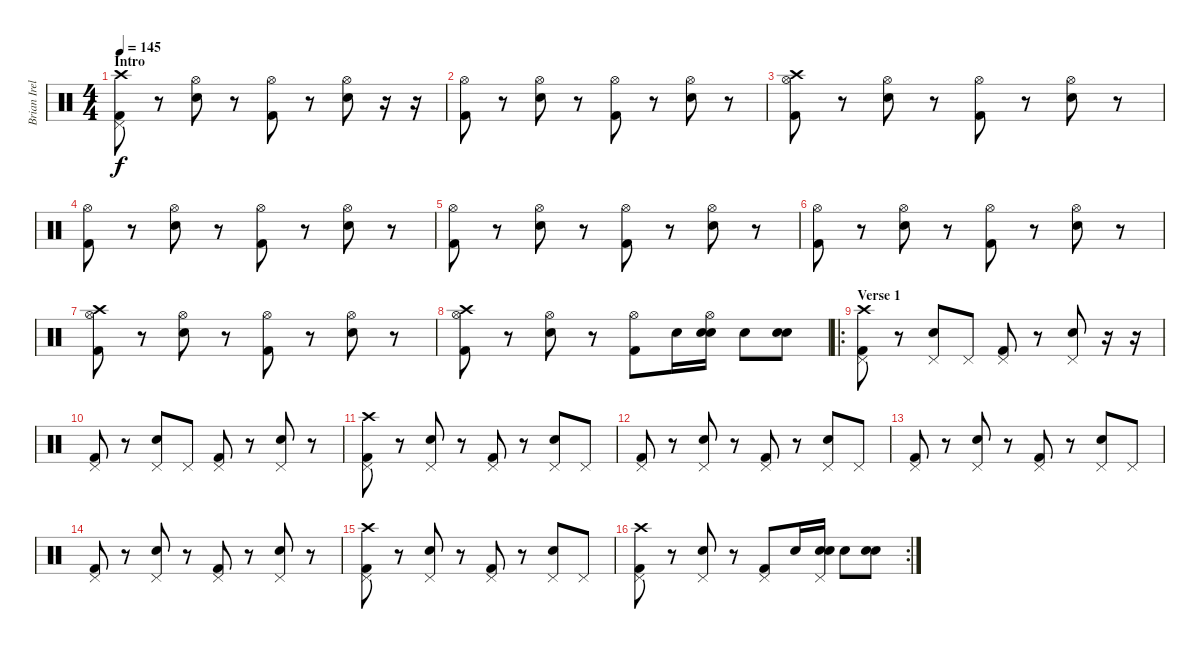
\track ("Brian Ireland" "Brian Irel") {instrument percussion}
\staff {score}
\articulation defaults
\ts (4 4)
\section ("" "Intro")
\tempo 145
\clef neutral
\ks c
("Crash high (hit)" "Pedal Hi-Hat (hit)" "Kick (hit) 2").8{dy f} r.8 ("Hi-Hat (open)" "Electric Snare (hit)").8 r.8 ("Hi-Hat (open)" "Kick (hit) 2").8 r.8 ("Hi-Hat (open)" "Electric Snare (hit)").8 r.16 r.16 |
("Hi-Hat (open)" "Kick (hit) 2").8 r.8 ("Hi-Hat (open)" "Electric Snare (hit)").8 r.8 ("Hi-Hat (open)" "Kick (hit) 2").8 r.8 ("Hi-Hat (open)" "Electric Snare (hit)").8 r.8 |
("Crash high (hit)" "Hi-Hat (open)" "Kick (hit) 2").8 r.8 ("Hi-Hat (open)" "Electric Snare (hit)").8 r.8 ("Hi-Hat (open)" "Kick (hit) 2").8 r.8 ("Hi-Hat (open)" "Electric Snare (hit)").8 r.8 |
("Hi-Hat (open)" "Kick (hit) 2").8 r.8 ("Hi-Hat (open)" "Electric Snare (hit)").8 r.8 ("Hi-Hat (open)" "Kick (hit) 2").8 r.8 ("Hi-Hat (open)" "Electric Snare (hit)").8 r.8 |
("Hi-Hat (open)" "Kick (hit) 2").8 r.8 ("Hi-Hat (open)" "Electric Snare (hit)").8 r.8 ("Hi-Hat (open)" "Kick (hit) 2").8 r.8 ("Hi-Hat (open)" "Electric Snare (hit)").8 r.8 |
("Hi-Hat (open)" "Kick (hit) 2").8 r.8 ("Hi-Hat (open)" "Electric Snare (hit)").8 r.8 ("Hi-Hat (open)" "Kick (hit) 2").8 r.8 ("Hi-Hat (open)" "Electric Snare (hit)").8 r.8 |
("Crash high (hit)" "Hi-Hat (open)" "Kick (hit) 2").8 r.8 ("Hi-Hat (open)" "Electric Snare (hit)").8 r.8 ("Hi-Hat (open)" "Kick (hit) 2").8 r.8 ("Hi-Hat (open)" "Electric Snare (hit)").8 r.8 |
\section ("" "")
("Crash high (hit)" "Hi-Hat (open)" "Kick (hit) 2").8 r.8 ("Hi-Hat (open)" "Electric Snare (hit)").8 r.8 ("Hi-Hat (open)" "Kick (hit) 2").8 "Electric Snare (hit)".16 ("Electric Snare (hit)" "Hi-Hat (open)" "Electric Snare (hit)").16 "Electric Snare (hit)".8 ("Electric Snare (hit)" "Electric Snare (hit)").8 |
\ro
\section ("" "Verse 1")
("Crash high (hit)" "Pedal Hi-Hat (hit)" "Kick (hit) 2").8 r.8 ("Pedal Hi-Hat (hit)" "Electric Snare (hit)").8 "Pedal Hi-Hat (hit)".8 ("Pedal Hi-Hat (hit)" "Kick (hit) 2").8 r.8 ("Pedal Hi-Hat (hit)" "Electric Snare (hit)").8 r.16 r.16 |
("Pedal Hi-Hat (hit)" "Kick (hit) 2").8 r.8 ("Pedal Hi-Hat (hit)" "Electric Snare (hit)").8 "Pedal Hi-Hat (hit)".8 ("Pedal Hi-Hat (hit)" "Kick (hit) 2").8 r.8 ("Pedal Hi-Hat (hit)" "Electric Snare (hit)").8 r.8 |
("Crash high (hit)" "Pedal Hi-Hat (hit)" "Kick (hit) 2").8 r.8 ("Pedal Hi-Hat (hit)" "Electric Snare (hit)").8 r.8 ("Pedal Hi-Hat (hit)" "Kick (hit) 2").8 r.8 ("Pedal Hi-Hat (hit)" "Electric Snare (hit)").8 "Pedal Hi-Hat (hit)".8 |
("Pedal Hi-Hat (hit)" "Kick (hit) 2").8 r.8 ("Pedal Hi-Hat (hit)" "Electric Snare (hit)").8 r.8 ("Pedal Hi-Hat (hit)" "Kick (hit) 2").8 r.8 ("Pedal Hi-Hat (hit)" "Electric Snare (hit)").8 "Pedal Hi-Hat (hit)".8 |
("Pedal Hi-Hat (hit)" "Kick (hit) 2").8 r.8 ("Pedal Hi-Hat (hit)" "Electric Snare (hit)").8 r.8 ("Pedal Hi-Hat (hit)" "Kick (hit) 2").8 r.8 ("Pedal Hi-Hat (hit)" "Electric Snare (hit)").8 "Pedal Hi-Hat (hit)".8 |
("Pedal Hi-Hat (hit)" "Kick (hit) 2").8 r.8 ("Pedal Hi-Hat (hit)" "Electric Snare (hit)").8 r.8 ("Pedal Hi-Hat (hit)" "Kick (hit) 2").8 r.8 ("Pedal Hi-Hat (hit)" "Electric Snare (hit)").8 r.8 |
("Crash high (hit)" "Pedal Hi-Hat (hit)" "Kick (hit) 2").8 r.8 ("Pedal Hi-Hat (hit)" "Electric Snare (hit)").8 r.8 ("Pedal Hi-Hat (hit)" "Kick (hit) 2").8 r.8 ("Pedal Hi-Hat (hit)" "Electric Snare (hit)").8 "Pedal Hi-Hat (hit)".8 |
\rc 2
("Crash high (hit)" "Pedal Hi-Hat (hit)" "Kick (hit) 2").8 r.8 ("Pedal Hi-Hat (hit)" "Electric Snare (hit)").8 r.8 ("Pedal Hi-Hat (hit)" "Kick (hit) 2").8 "Electric Snare (hit)".16 ("Electric Snare (hit)" "Pedal Hi-Hat (hit)" "Electric Snare (hit)").16 "Electric Snare (hit)".8 ("Electric Snare (hit)" "Electric Snare (hit)").8
